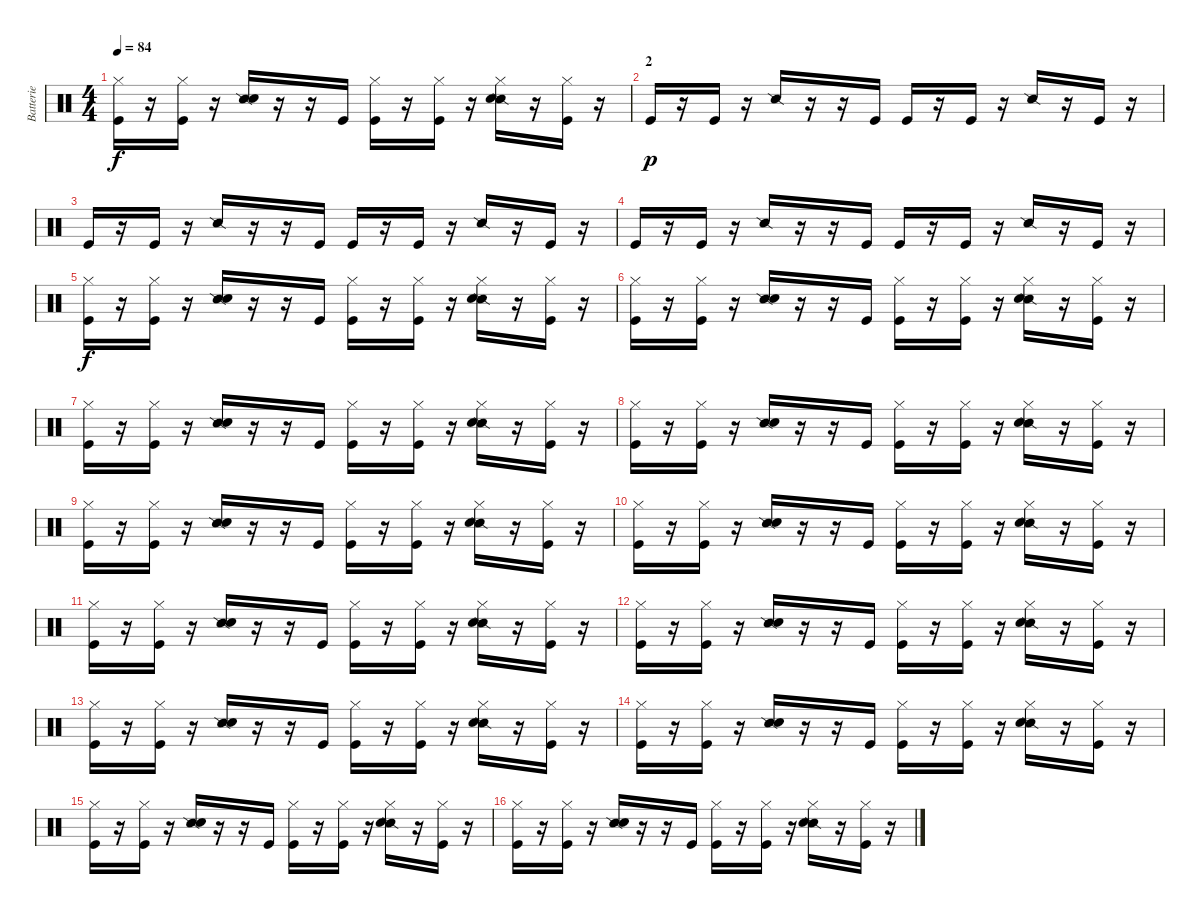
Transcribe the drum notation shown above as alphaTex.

\track ("Batterie" "Batterie") {instrument percussion}
\staff {score}
\articulation defaults
\ts (4 4)
\tempo 84
\clef neutral
\ks c
("Hi-Hat (closed)" "Kick (hit)").16{dy f} r.16 ("Hi-Hat (closed)" "Kick (hit)").16 r.16 ("Snare (side stick) 2" "Electric Snare (hit)").16 r.16 r.16 "Kick (hit)".16 ("Hi-Hat (closed)" "Kick (hit)").16 r.16 ("Hi-Hat (closed)" "Kick (hit)").16 r.16 ("Hi-Hat (closed)" "Snare (side stick) 2" "Electric Snare (hit)").16 r.16 ("Hi-Hat (closed)" "Kick (hit)").16 r.16 |
\section ("" "2")
"Kick (hit)".16{dy p} r.16 "Kick (hit)".16 r.16 "Snare (side stick) 2".16 r.16 r.16 "Kick (hit)".16 "Kick (hit)".16 r.16 "Kick (hit)".16 r.16 "Snare (side stick) 2".16 r.16 "Kick (hit)".16 r.16 |
"Kick (hit)".16 r.16 "Kick (hit)".16 r.16 "Snare (side stick) 2".16 r.16 r.16 "Kick (hit)".16 "Kick (hit)".16 r.16 "Kick (hit)".16 r.16 "Snare (side stick) 2".16 r.16 "Kick (hit)".16 r.16 |
"Kick (hit)".16 r.16 "Kick (hit)".16 r.16 "Snare (side stick) 2".16 r.16 r.16 "Kick (hit)".16 "Kick (hit)".16 r.16 "Kick (hit)".16 r.16 "Snare (side stick) 2".16 r.16 "Kick (hit)".16 r.16 |
("Hi-Hat (closed)" "Kick (hit)").16{dy f} r.16 ("Hi-Hat (closed)" "Kick (hit)").16 r.16 ("Snare (side stick) 2" "Electric Snare (hit)").16 r.16 r.16 "Kick (hit)".16 ("Hi-Hat (closed)" "Kick (hit)").16 r.16 ("Hi-Hat (closed)" "Kick (hit)").16 r.16 ("Hi-Hat (closed)" "Snare (side stick) 2" "Electric Snare (hit)").16 r.16 ("Hi-Hat (closed)" "Kick (hit)").16 r.16 |
("Hi-Hat (closed)" "Kick (hit)").16 r.16 ("Hi-Hat (closed)" "Kick (hit)").16 r.16 ("Snare (side stick) 2" "Electric Snare (hit)").16 r.16 r.16 "Kick (hit)".16 ("Hi-Hat (closed)" "Kick (hit)").16 r.16 ("Hi-Hat (closed)" "Kick (hit)").16 r.16 ("Hi-Hat (closed)" "Snare (side stick) 2" "Electric Snare (hit)").16 r.16 ("Hi-Hat (closed)" "Kick (hit)").16 r.16 |
("Hi-Hat (closed)" "Kick (hit)").16 r.16 ("Hi-Hat (closed)" "Kick (hit)").16 r.16 ("Snare (side stick) 2" "Electric Snare (hit)").16 r.16 r.16 "Kick (hit)".16 ("Hi-Hat (closed)" "Kick (hit)").16 r.16 ("Hi-Hat (closed)" "Kick (hit)").16 r.16 ("Hi-Hat (closed)" "Snare (side stick) 2" "Electric Snare (hit)").16 r.16 ("Hi-Hat (closed)" "Kick (hit)").16 r.16 |
("Hi-Hat (closed)" "Kick (hit)").16 r.16 ("Hi-Hat (closed)" "Kick (hit)").16 r.16 ("Snare (side stick) 2" "Electric Snare (hit)").16 r.16 r.16 "Kick (hit)".16 ("Hi-Hat (closed)" "Kick (hit)").16 r.16 ("Hi-Hat (closed)" "Kick (hit)").16 r.16 ("Hi-Hat (closed)" "Snare (side stick) 2" "Electric Snare (hit)").16 r.16 ("Hi-Hat (closed)" "Kick (hit)").16 r.16 |
("Hi-Hat (closed)" "Kick (hit)").16 r.16 ("Hi-Hat (closed)" "Kick (hit)").16 r.16 ("Snare (side stick) 2" "Electric Snare (hit)").16 r.16 r.16 "Kick (hit)".16 ("Hi-Hat (closed)" "Kick (hit)").16 r.16 ("Hi-Hat (closed)" "Kick (hit)").16 r.16 ("Hi-Hat (closed)" "Snare (side stick) 2" "Electric Snare (hit)").16 r.16 ("Hi-Hat (closed)" "Kick (hit)").16 r.16 |
("Hi-Hat (closed)" "Kick (hit)").16 r.16 ("Hi-Hat (closed)" "Kick (hit)").16 r.16 ("Snare (side stick) 2" "Electric Snare (hit)").16 r.16 r.16 "Kick (hit)".16 ("Hi-Hat (closed)" "Kick (hit)").16 r.16 ("Hi-Hat (closed)" "Kick (hit)").16 r.16 ("Hi-Hat (closed)" "Snare (side stick) 2" "Electric Snare (hit)").16 r.16 ("Hi-Hat (closed)" "Kick (hit)").16 r.16 |
("Hi-Hat (closed)" "Kick (hit)").16 r.16 ("Hi-Hat (closed)" "Kick (hit)").16 r.16 ("Snare (side stick) 2" "Electric Snare (hit)").16 r.16 r.16 "Kick (hit)".16 ("Hi-Hat (closed)" "Kick (hit)").16 r.16 ("Hi-Hat (closed)" "Kick (hit)").16 r.16 ("Hi-Hat (closed)" "Snare (side stick) 2" "Electric Snare (hit)").16 r.16 ("Hi-Hat (closed)" "Kick (hit)").16 r.16 |
("Hi-Hat (closed)" "Kick (hit)").16 r.16 ("Hi-Hat (closed)" "Kick (hit)").16 r.16 ("Snare (side stick) 2" "Electric Snare (hit)").16 r.16 r.16 "Kick (hit)".16 ("Hi-Hat (closed)" "Kick (hit)").16 r.16 ("Hi-Hat (closed)" "Kick (hit)").16 r.16 ("Hi-Hat (closed)" "Snare (side stick) 2" "Electric Snare (hit)").16 r.16 ("Hi-Hat (closed)" "Kick (hit)").16 r.16 |
("Hi-Hat (closed)" "Kick (hit)").16 r.16 ("Hi-Hat (closed)" "Kick (hit)").16 r.16 ("Snare (side stick) 2" "Electric Snare (hit)").16 r.16 r.16 "Kick (hit)".16 ("Hi-Hat (closed)" "Kick (hit)").16 r.16 ("Hi-Hat (closed)" "Kick (hit)").16 r.16 ("Hi-Hat (closed)" "Snare (side stick) 2" "Electric Snare (hit)").16 r.16 ("Hi-Hat (closed)" "Kick (hit)").16 r.16 |
("Hi-Hat (closed)" "Kick (hit)").16 r.16 ("Hi-Hat (closed)" "Kick (hit)").16 r.16 ("Snare (side stick) 2" "Electric Snare (hit)").16 r.16 r.16 "Kick (hit)".16 ("Hi-Hat (closed)" "Kick (hit)").16 r.16 ("Hi-Hat (closed)" "Kick (hit)").16 r.16 ("Hi-Hat (closed)" "Snare (side stick) 2" "Electric Snare (hit)").16 r.16 ("Hi-Hat (closed)" "Kick (hit)").16 r.16 |
("Hi-Hat (closed)" "Kick (hit)").16 r.16 ("Hi-Hat (closed)" "Kick (hit)").16 r.16 ("Snare (side stick) 2" "Electric Snare (hit)").16 r.16 r.16 "Kick (hit)".16 ("Hi-Hat (closed)" "Kick (hit)").16 r.16 ("Hi-Hat (closed)" "Kick (hit)").16 r.16 ("Hi-Hat (closed)" "Snare (side stick) 2" "Electric Snare (hit)").16 r.16 ("Hi-Hat (closed)" "Kick (hit)").16 r.16 |
("Hi-Hat (closed)" "Kick (hit)").16 r.16 ("Hi-Hat (closed)" "Kick (hit)").16 r.16 ("Snare (side stick) 2" "Electric Snare (hit)").16 r.16 r.16 "Kick (hit)".16 ("Hi-Hat (closed)" "Kick (hit)").16 r.16 ("Hi-Hat (closed)" "Kick (hit)").16 r.16 ("Hi-Hat (closed)" "Snare (side stick) 2" "Electric Snare (hit)").16 r.16 ("Hi-Hat (closed)" "Kick (hit)").16 r.16
